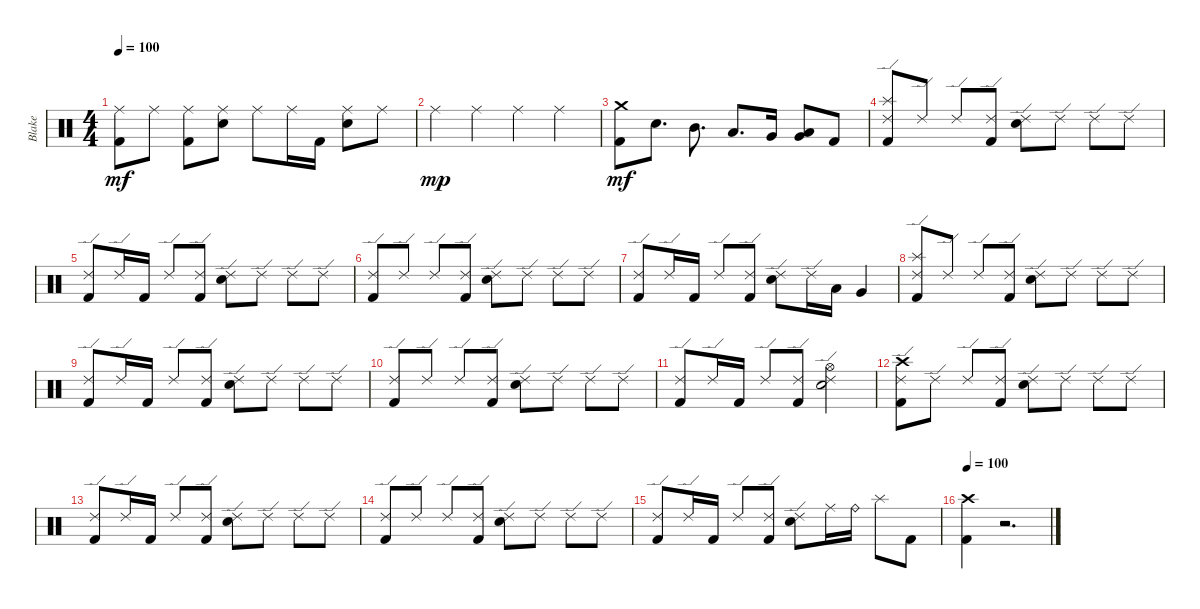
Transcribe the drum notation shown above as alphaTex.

\track ("Blake" "Blake") {instrument percussion}
\staff {score}
\articulation defaults
\ts (4 4)
\tempo 100
\clef neutral
\ks c
("Ride (middle)" "Kick (hit) 2").8{dy mf} "Ride (middle)".8 ("Ride (middle)" "Kick (hit) 2").8 ("Ride (middle)" "Snare (hit) 2").8 "Ride (middle)".8 "Ride (middle)".16 "Kick (hit) 2".16 ("Ride (middle)" "Snare (hit) 2").8 "Ride (middle)".8 |
"Ride (middle)".4{dy mp} "Ride (middle)".4 "Ride (middle)".4 "Ride (middle)".4 |
("Crash medium (hit)" "Kick (hit) 2").8{dy mf} "Snare (hit) 2".8{d} "Mid Tom (hit)".8{d} "Low Tom (hit)".8{d} "Very Low Tom (hit)".16 ("Low Tom (hit)" "Very Low Tom (hit)").8 "Kick (hit) 2".8 |
("Splash (hit)" "Ride (edge) 2" "Kick (hit) 2").8 "Ride (edge) 2".8 "Ride (edge) 2".8 ("Ride (edge) 2" "Kick (hit) 2").8 ("Ride (edge) 2" "Snare (hit) 2").8 "Ride (edge) 2".8 "Ride (edge) 2".8 "Ride (edge) 2".8 |
("Ride (edge) 2" "Kick (hit) 2").8 "Ride (edge) 2".16 "Kick (hit) 2".16 "Ride (edge) 2".8 ("Ride (edge) 2" "Kick (hit) 2").8 ("Ride (edge) 2" "Snare (hit) 2").8 "Ride (edge) 2".8 "Ride (edge) 2".8 "Ride (edge) 2".8 |
("Ride (edge) 2" "Kick (hit) 2").8 "Ride (edge) 2".8 "Ride (edge) 2".8 ("Ride (edge) 2" "Kick (hit) 2").8 ("Ride (edge) 2" "Snare (hit) 2").8 "Ride (edge) 2".8 "Ride (edge) 2".8 "Ride (edge) 2".8 |
("Ride (edge) 2" "Kick (hit) 2").8 "Ride (edge) 2".16 "Kick (hit) 2".16 "Ride (edge) 2".8 ("Ride (edge) 2" "Kick (hit) 2").8 ("Ride (edge) 2" "Snare (hit) 2").8 "Ride (edge) 2".16 "Low Tom (hit)".16 "Very Low Tom (hit)".4 |
("Splash (hit)" "Ride (edge) 2" "Kick (hit) 2").8 "Ride (edge) 2".8 "Ride (edge) 2".8 ("Ride (edge) 2" "Kick (hit) 2").8 ("Ride (edge) 2" "Snare (hit) 2").8 "Ride (edge) 2".8 "Ride (edge) 2".8 "Ride (edge) 2".8 |
("Ride (edge) 2" "Kick (hit) 2").8 "Ride (edge) 2".16 "Kick (hit) 2".16 "Ride (edge) 2".8 ("Ride (edge) 2" "Kick (hit) 2").8 ("Ride (edge) 2" "Snare (hit) 2").8 "Ride (edge) 2".8 "Ride (edge) 2".8 "Ride (edge) 2".8 |
("Ride (edge) 2" "Kick (hit) 2").8 "Ride (edge) 2".8 "Ride (edge) 2".8 ("Ride (edge) 2" "Kick (hit) 2").8 ("Ride (edge) 2" "Snare (hit) 2").8 "Ride (edge) 2".8 "Ride (edge) 2".8 "Ride (edge) 2".8 |
("Ride (edge) 2" "Kick (hit) 2").8 "Ride (edge) 2".16 "Kick (hit) 2".16 "Ride (edge) 2".8 ("Ride (edge) 2" "Kick (hit) 2").8 ("Hi-Hat (open)" "Ride (edge) 2" "Snare (hit) 2").2 |
("Crash high (hit)" "Ride (edge) 2" "Kick (hit) 2").8 "Ride (edge) 2".8 "Ride (edge) 2".8 ("Ride (edge) 2" "Kick (hit) 2").8 ("Ride (edge) 2" "Snare (hit) 2").8 "Ride (edge) 2".8 "Ride (edge) 2".8 "Ride (edge) 2".8 |
("Ride (edge) 2" "Kick (hit) 2").8 "Ride (edge) 2".16 "Kick (hit) 2".16 "Ride (edge) 2".8 ("Ride (edge) 2" "Kick (hit) 2").8 ("Ride (edge) 2" "Snare (hit) 2").8 "Ride (edge) 2".8 "Ride (edge) 2".8 "Ride (edge) 2".8 |
("Ride (edge) 2" "Kick (hit) 2").8 "Ride (edge) 2".8 "Ride (edge) 2".8 ("Ride (edge) 2" "Kick (hit) 2").8 ("Ride (edge) 2" "Snare (hit) 2").8 "Ride (edge) 2".8 "Ride (edge) 2".8 "Ride (edge) 2".8 |
("Ride (edge) 2" "Kick (hit) 2").8 "Ride (edge) 2".16 "Kick (hit) 2".16 "Ride (edge) 2".8 ("Ride (edge) 2" "Kick (hit) 2").8 ("Ride (edge) 2" "Snare (hit) 2").8 "Ride (middle)".16 "Ride (bell)".16 "Splash (hit)".8 "Kick (hit) 2".8 |
\tempo 100
("Crash high (hit)" "Kick (hit) 2").4 r.2{d}
